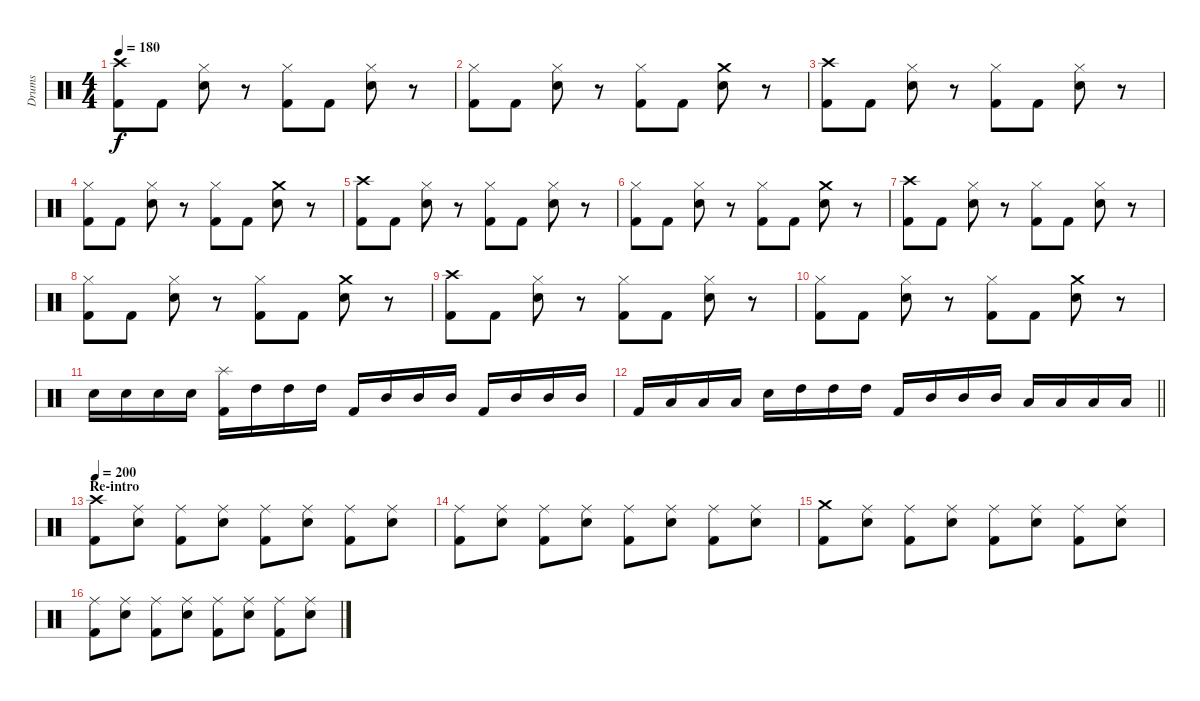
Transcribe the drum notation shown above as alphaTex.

\track ("Drums" "Drums") {instrument percussion}
\staff {score}
\articulation defaults
\ts (4 4)
\tempo 180
\clef neutral
\ks c
("Crash high (hit)" "Kick (hit) 2").8{dy f} "Kick (hit) 2".8 ("Hi-Hat (closed)" "Electric Snare (hit)").8 r.8 ("Hi-Hat (closed)" "Kick (hit) 2").8 "Kick (hit) 2".8 ("Hi-Hat (closed)" "Electric Snare (hit)").8 r.8 |
("Hi-Hat (closed)" "Kick (hit) 2").8 "Kick (hit) 2".8 ("Hi-Hat (closed)" "Electric Snare (hit)").8 r.8 ("Hi-Hat (closed)" "Kick (hit) 2").8 "Kick (hit) 2".8 ("Crash medium (hit)" "Electric Snare (hit)").8 r.8 |
("Crash high (hit)" "Kick (hit) 2").8 "Kick (hit) 2".8 ("Hi-Hat (closed)" "Electric Snare (hit)").8 r.8 ("Hi-Hat (closed)" "Kick (hit) 2").8 "Kick (hit) 2".8 ("Hi-Hat (closed)" "Electric Snare (hit)").8 r.8 |
("Hi-Hat (closed)" "Kick (hit) 2").8 "Kick (hit) 2".8 ("Hi-Hat (closed)" "Electric Snare (hit)").8 r.8 ("Hi-Hat (closed)" "Kick (hit) 2").8 "Kick (hit) 2".8 ("Crash medium (hit)" "Electric Snare (hit)").8 r.8 |
("Crash high (hit)" "Kick (hit) 2").8 "Kick (hit) 2".8 ("Hi-Hat (closed)" "Electric Snare (hit)").8 r.8 ("Hi-Hat (closed)" "Kick (hit) 2").8 "Kick (hit) 2".8 ("Hi-Hat (closed)" "Electric Snare (hit)").8 r.8 |
("Hi-Hat (closed)" "Kick (hit) 2").8 "Kick (hit) 2".8 ("Hi-Hat (closed)" "Electric Snare (hit)").8 r.8 ("Hi-Hat (closed)" "Kick (hit) 2").8 "Kick (hit) 2".8 ("Crash medium (hit)" "Electric Snare (hit)").8 r.8 |
("Crash high (hit)" "Kick (hit) 2").8 "Kick (hit) 2".8 ("Hi-Hat (closed)" "Electric Snare (hit)").8 r.8 ("Hi-Hat (closed)" "Kick (hit) 2").8 "Kick (hit) 2".8 ("Hi-Hat (closed)" "Electric Snare (hit)").8 r.8 |
("Hi-Hat (closed)" "Kick (hit) 2").8 "Kick (hit) 2".8 ("Hi-Hat (closed)" "Electric Snare (hit)").8 r.8 ("Hi-Hat (closed)" "Kick (hit) 2").8 "Kick (hit) 2".8 ("Crash medium (hit)" "Electric Snare (hit)").8 r.8 |
("Crash high (hit)" "Kick (hit) 2").8 "Kick (hit) 2".8 ("Hi-Hat (closed)" "Electric Snare (hit)").8 r.8 ("Hi-Hat (closed)" "Kick (hit) 2").8 "Kick (hit) 2".8 ("Hi-Hat (closed)" "Electric Snare (hit)").8 r.8 |
("Hi-Hat (closed)" "Kick (hit) 2").8 "Kick (hit) 2".8 ("Hi-Hat (closed)" "Electric Snare (hit)").8 r.8 ("Hi-Hat (closed)" "Kick (hit) 2").8 "Kick (hit) 2".8 ("Crash medium (hit)" "Electric Snare (hit)").8 r.8 |
"Electric Snare (hit)".16 "Electric Snare (hit)".16 "Electric Snare (hit)".16 "Electric Snare (hit)".16 ("Splash (hit)" "Kick (hit) 2").16 "High Tom (hit)".16 "High Tom (hit)".16 "High Tom (hit)".16 "Kick (hit) 2".16 "Mid Tom (hit)".16 "Mid Tom (hit)".16 "Mid Tom (hit)".16 "Kick (hit) 2".16 "Mid Tom (hit)".16 "Mid Tom (hit)".16 "Mid Tom (hit)".16 |
\barLineRight lightlight "Kick (hit) 2".16 "Low Tom (hit)".16 "Low Tom (hit)".16 "Low Tom (hit)".16 "Electric Snare (hit)".16 "High Tom (hit)".16 "High Tom (hit)".16 "High Tom (hit)".16 "Kick (hit) 2".16 "Mid Tom (hit)".16 "Mid Tom (hit)".16 "Mid Tom (hit)".16 "Low Tom (hit)".16 "Low Tom (hit)".16 "Low Tom (hit)".16 "Low Tom (hit)".16
|
\section ("" "Re-intro")
\tempo 200
("Crash high (hit)" "Kick (hit) 2").8 ("Ride (middle)" "Electric Snare (hit)").8 ("Ride (middle)" "Kick (hit) 2").8 ("Ride (middle)" "Electric Snare (hit)").8 ("Ride (middle)" "Kick (hit) 2").8 ("Ride (middle)" "Electric Snare (hit)").8 ("Ride (middle)" "Kick (hit) 2").8 ("Ride (middle)" "Electric Snare (hit)").8 |
("Ride (middle)" "Kick (hit) 2").8 ("Ride (middle)" "Electric Snare (hit)").8 ("Ride (middle)" "Kick (hit) 2").8 ("Ride (middle)" "Electric Snare (hit)").8 ("Ride (middle)" "Kick (hit) 2").8 ("Ride (middle)" "Electric Snare (hit)").8 ("Ride (middle)" "Kick (hit) 2").8 ("Ride (middle)" "Electric Snare (hit)").8 |
("Crash medium (hit)" "Kick (hit) 2").8 ("Ride (middle)" "Electric Snare (hit)").8 ("Ride (middle)" "Kick (hit) 2").8 ("Ride (middle)" "Electric Snare (hit)").8 ("Ride (middle)" "Kick (hit) 2").8 ("Ride (middle)" "Electric Snare (hit)").8 ("Ride (middle)" "Kick (hit) 2").8 ("Ride (middle)" "Electric Snare (hit)").8 |
("Ride (middle)" "Kick (hit) 2").8 ("Ride (middle)" "Electric Snare (hit)").8 ("Ride (middle)" "Kick (hit) 2").8 ("Ride (middle)" "Electric Snare (hit)").8 ("Ride (middle)" "Kick (hit) 2").8 ("Ride (middle)" "Electric Snare (hit)").8 ("Ride (middle)" "Kick (hit) 2").8 ("Ride (middle)" "Electric Snare (hit)").8
